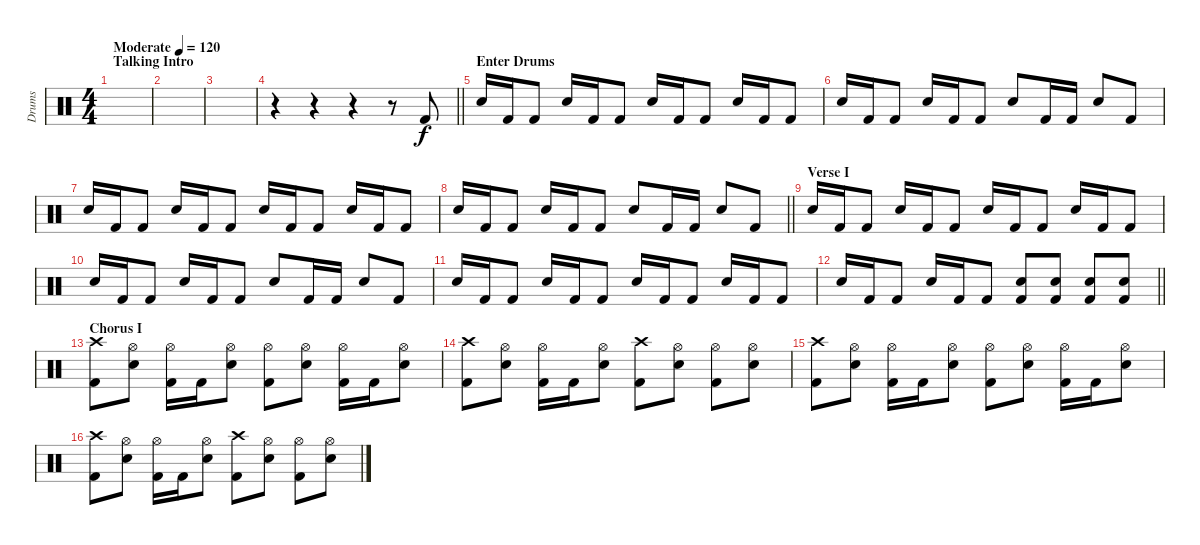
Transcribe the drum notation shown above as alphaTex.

\track ("Drums" "Drums") {instrument percussion}
\staff {score}
\articulation defaults
\ts (4 4)
\section ("" "Talking Intro")
\tempo (120 "Moderate")
\clef neutral
\ks c
|
|
|
\barLineRight lightlight
r.4 r.4 r.4 r.8 "Kick (hit) 2".8 |
\section ("" "Enter Drums")
"Electric Snare (hit)".16 "Kick (hit) 2".16 "Kick (hit) 2".8 "Electric Snare (hit)".16 "Kick (hit) 2".16 "Kick (hit) 2".8 "Electric Snare (hit)".16 "Kick (hit) 2".16 "Kick (hit) 2".8 "Electric Snare (hit)".16 "Kick (hit) 2".16 "Kick (hit) 2".8 |
"Electric Snare (hit)".16 "Kick (hit) 2".16 "Kick (hit) 2".8 "Electric Snare (hit)".16 "Kick (hit) 2".16 "Kick (hit) 2".8 "Electric Snare (hit)".8 "Kick (hit) 2".16 "Kick (hit) 2".16 "Electric Snare (hit)".8 "Kick (hit) 2".8 |
"Electric Snare (hit)".16 "Kick (hit) 2".16 "Kick (hit) 2".8 "Electric Snare (hit)".16 "Kick (hit) 2".16 "Kick (hit) 2".8 "Electric Snare (hit)".16 "Kick (hit) 2".16 "Kick (hit) 2".8 "Electric Snare (hit)".16 "Kick (hit) 2".16 "Kick (hit) 2".8 |
\barLineRight lightlight "Electric Snare (hit)".16 "Kick (hit) 2".16 "Kick (hit) 2".8 "Electric Snare (hit)".16 "Kick (hit) 2".16 "Kick (hit) 2".8 "Electric Snare (hit)".8 "Kick (hit) 2".16 "Kick (hit) 2".16 "Electric Snare (hit)".8 "Kick (hit) 2".8
|
\section ("" "Verse I")
"Electric Snare (hit)".16 "Kick (hit) 2".16 "Kick (hit) 2".8 "Electric Snare (hit)".16 "Kick (hit) 2".16 "Kick (hit) 2".8 "Electric Snare (hit)".16 "Kick (hit) 2".16 "Kick (hit) 2".8 "Electric Snare (hit)".16 "Kick (hit) 2".16 "Kick (hit) 2".8 |
"Electric Snare (hit)".16 "Kick (hit) 2".16 "Kick (hit) 2".8 "Electric Snare (hit)".16 "Kick (hit) 2".16 "Kick (hit) 2".8 "Electric Snare (hit)".8 "Kick (hit) 2".16 "Kick (hit) 2".16 "Electric Snare (hit)".8 "Kick (hit) 2".8 |
"Electric Snare (hit)".16 "Kick (hit) 2".16 "Kick (hit) 2".8 "Electric Snare (hit)".16 "Kick (hit) 2".16 "Kick (hit) 2".8 "Electric Snare (hit)".16 "Kick (hit) 2".16 "Kick (hit) 2".8 "Electric Snare (hit)".16 "Kick (hit) 2".16 "Kick (hit) 2".8 |
\barLineRight lightlight "Electric Snare (hit)".16 "Kick (hit) 2".16 "Kick (hit) 2".8 "Electric Snare (hit)".16 "Kick (hit) 2".16 "Kick (hit) 2".8
("Electric Snare (hit)" "Kick (hit) 2").8 ("Electric Snare (hit)" "Kick (hit) 2").8 ("Electric Snare (hit)" "Kick (hit) 2").8 ("Electric Snare (hit)" "Kick (hit) 2").8 |
\section ("" "Chorus I")
("Crash high (hit)" "Kick (hit) 2").8 ("Hi-Hat (open)" "Electric Snare (hit)").8 ("Hi-Hat (open)" "Kick (hit) 2").16 "Kick (hit) 2".16 ("Hi-Hat (open)" "Electric Snare (hit)").8 ("Hi-Hat (open)" "Kick (hit) 2").8 ("Hi-Hat (open)" "Electric Snare (hit)").8 ("Hi-Hat (open)" "Kick (hit) 2").16 "Kick (hit) 2".16 ("Hi-Hat (open)" "Electric Snare (hit)").8 |
("Crash high (hit)" "Kick (hit) 2").8 ("Hi-Hat (open)" "Electric Snare (hit)").8 ("Hi-Hat (open)" "Kick (hit) 2").16 "Kick (hit) 2".16 ("Hi-Hat (open)" "Electric Snare (hit)").8 ("Crash high (hit)" "Kick (hit) 2").8 ("Hi-Hat (open)" "Electric Snare (hit)").8 ("Hi-Hat (open)" "Kick (hit) 2").8 ("Hi-Hat (open)" "Electric Snare (hit)").8 |
("Crash high (hit)" "Kick (hit) 2").8 ("Hi-Hat (open)" "Electric Snare (hit)").8 ("Hi-Hat (open)" "Kick (hit) 2").16 "Kick (hit) 2".16 ("Hi-Hat (open)" "Electric Snare (hit)").8 ("Hi-Hat (open)" "Kick (hit) 2").8 ("Hi-Hat (open)" "Electric Snare (hit)").8 ("Hi-Hat (open)" "Kick (hit) 2").16 "Kick (hit) 2".16 ("Hi-Hat (open)" "Electric Snare (hit)").8 |
("Crash high (hit)" "Kick (hit) 2").8 ("Hi-Hat (open)" "Electric Snare (hit)").8 ("Hi-Hat (open)" "Kick (hit) 2").16 "Kick (hit) 2".16 ("Hi-Hat (open)" "Electric Snare (hit)").8 ("Crash high (hit)" "Kick (hit) 2").8 ("Hi-Hat (open)" "Electric Snare (hit)").8 ("Hi-Hat (open)" "Kick (hit) 2").8 ("Hi-Hat (open)" "Electric Snare (hit)").8
